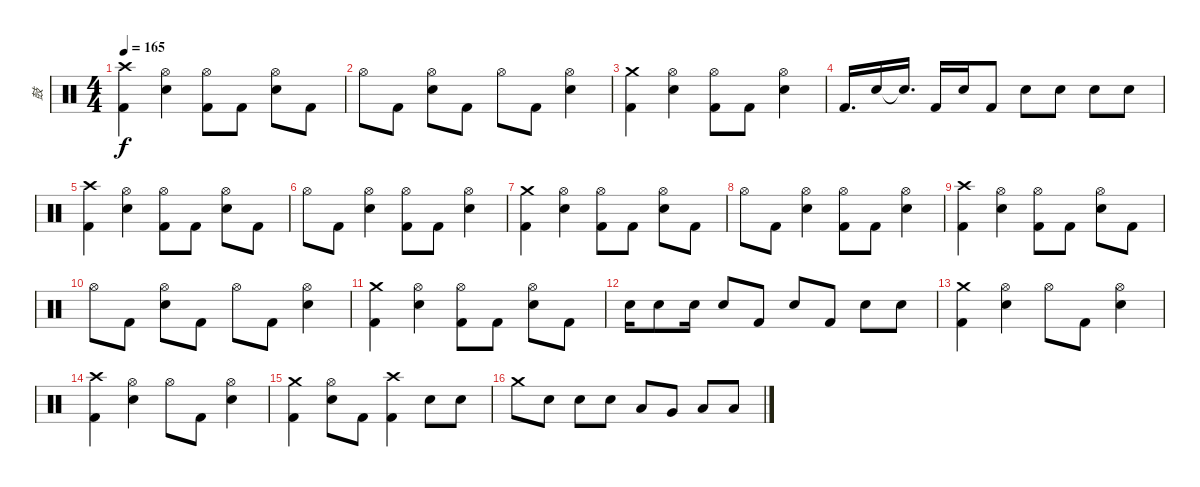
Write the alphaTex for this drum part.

\track ("鼓" "鼓") {instrument percussion}
\staff {score}
\articulation defaults
\ts (4 4)
\tempo 165
\clef neutral
\ks c
("Crash high (hit)" "Kick (hit) 2").4{dy f} ("Hi-Hat (open)" "Snare (hit) 2").4 ("Hi-Hat (open)" "Kick (hit) 2").8 "Kick (hit) 2".8 ("Hi-Hat (open)" "Snare (hit) 2").8 "Kick (hit) 2".8 |
"Hi-Hat (open)".8 "Kick (hit) 2".8 ("Hi-Hat (open)" "Snare (hit) 2").8 "Kick (hit) 2".8 "Hi-Hat (open)".8 "Kick (hit) 2".8 ("Hi-Hat (open)" "Snare (hit) 2").4 |
("Crash medium (hit)" "Kick (hit) 2").4 ("Hi-Hat (open)" "Snare (hit) 2").4 ("Hi-Hat (open)" "Kick (hit) 2").8 "Kick (hit) 2".8 ("Hi-Hat (open)" "Snare (hit) 2").4 |
"Kick (hit) 2".16{d} "Snare (hit) 2".16 "Snare (hit) 2"{t}.16{d} "Kick (hit) 2".16 "Snare (hit) 2".16 "Kick (hit) 2".8 "Snare (hit) 2".8 "Snare (hit) 2".8 "Snare (hit) 2".8 "Snare (hit) 2".8 |
("Crash high (hit)" "Kick (hit) 2").4 ("Hi-Hat (open)" "Snare (hit) 2").4 ("Hi-Hat (open)" "Kick (hit) 2").8 "Kick (hit) 2".8 ("Hi-Hat (open)" "Snare (hit) 2").8 "Kick (hit) 2".8 |
"Hi-Hat (open)".8 "Kick (hit) 2".8 ("Hi-Hat (open)" "Snare (hit) 2").4 ("Hi-Hat (open)" "Kick (hit) 2").8 "Kick (hit) 2".8 ("Hi-Hat (open)" "Snare (hit) 2").4 |
("Crash medium (hit)" "Kick (hit) 2").4 ("Hi-Hat (open)" "Snare (hit) 2").4 ("Hi-Hat (open)" "Kick (hit) 2").8 "Kick (hit) 2".8 ("Hi-Hat (open)" "Snare (hit) 2").8 "Kick (hit) 2".8 |
"Hi-Hat (open)".8 "Kick (hit) 2".8 ("Hi-Hat (open)" "Snare (hit) 2").4 ("Hi-Hat (open)" "Kick (hit) 2").8 "Kick (hit) 2".8 ("Hi-Hat (open)" "Snare (hit) 2").4 |
("Crash high (hit)" "Kick (hit) 2").4 ("Hi-Hat (open)" "Snare (hit) 2").4 ("Hi-Hat (open)" "Kick (hit) 2").8 "Kick (hit) 2".8 ("Hi-Hat (open)" "Snare (hit) 2").8 "Kick (hit) 2".8 |
"Hi-Hat (open)".8 "Kick (hit) 2".8 ("Hi-Hat (open)" "Snare (hit) 2").8 "Kick (hit) 2".8 "Hi-Hat (open)".8 "Kick (hit) 2".8 ("Hi-Hat (open)" "Snare (hit) 2").4 |
("Crash medium (hit)" "Kick (hit) 2").4 ("Hi-Hat (open)" "Snare (hit) 2").4 ("Hi-Hat (open)" "Kick (hit) 2").8 "Kick (hit) 2".8 ("Hi-Hat (open)" "Snare (hit) 2").8 "Kick (hit) 2".8 |
"Snare (hit) 2".16 "Snare (hit) 2".8 "Snare (hit) 2".16 "Snare (hit) 2".8 "Kick (hit) 2".8 "Snare (hit) 2".8 "Kick (hit) 2".8 "Snare (hit) 2".8 "Snare (hit) 2".8 |
("Crash medium (hit)" "Kick (hit) 2").4 ("Hi-Hat (open)" "Snare (hit) 2").4 "Hi-Hat (open)".8 "Kick (hit) 2".8 ("Hi-Hat (open)" "Snare (hit) 2").4 |
("Crash high (hit)" "Kick (hit) 2").4 ("Hi-Hat (open)" "Snare (hit) 2").4 "Hi-Hat (open)".8 "Kick (hit) 2".8 ("Hi-Hat (open)" "Snare (hit) 2").4 |
("Crash medium (hit)" "Kick (hit) 2").4 ("Hi-Hat (open)" "Snare (hit) 2").8 "Kick (hit) 2".8 ("Crash high (hit)" "Kick (hit) 2").4 "Snare (hit) 2".8 "Snare (hit) 2".8 |
"Crash medium (hit)".8 "Snare (hit) 2".8 "Snare (hit) 2".8 "Snare (hit) 2".8 "Low Tom (hit)".8 "Very Low Tom (hit)".8 "Low Floor Tom (hit)".8 "Low Floor Tom (hit)".8
